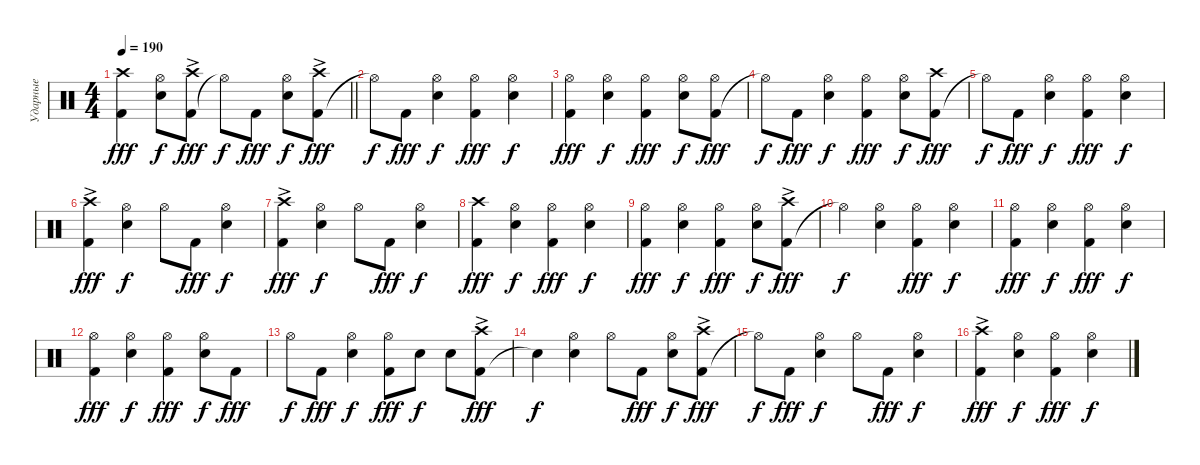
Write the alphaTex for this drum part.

\track ("Ударные" "Ударные") {instrument percussion}
\staff {score}
\articulation defaults
\ts (4 4)
\tempo 190
\clef neutral
\barLineRight lightlight
\ks c
("Kick (hit) 2" "Crash high (hit)").4{dy fff} ("Snare (hit) 2" "Hi-Hat (open)").8{dy f} ("Kick (hit) 2" "Crash high (hit)"{ac}).8{dy fff} "Hi-Hat (open)"{t}.8{dy f} "Kick (hit) 2".8{dy fff} ("Snare (hit) 2" "Hi-Hat (open)").8{dy f} ("Kick (hit) 2" "Crash high (hit)"{ac}).8{dy fff} |
"Hi-Hat (open)"{t}.8{dy f} "Kick (hit) 2".8{dy fff} ("Snare (hit) 2" "Hi-Hat (open)").4{dy f} ("Kick (hit) 2" "Hi-Hat (open)").4{dy fff} ("Snare (hit) 2" "Hi-Hat (open)").4{dy f} |
("Kick (hit) 2" "Hi-Hat (open)").4{dy fff} ("Snare (hit) 2" "Hi-Hat (open)").4{dy f} ("Kick (hit) 2" "Hi-Hat (open)").4{dy fff} ("Snare (hit) 2" "Hi-Hat (open)").8{dy f} ("Kick (hit) 2" "Hi-Hat (open)").8{dy fff} |
"Hi-Hat (open)"{t}.8{dy f} "Kick (hit) 2".8{dy fff} ("Snare (hit) 2" "Hi-Hat (open)").4{dy f} ("Kick (hit) 2" "Hi-Hat (open)").4{dy fff} ("Snare (hit) 2" "Hi-Hat (open)").8{dy f} ("Kick (hit) 2" "Crash high (hit)").8{dy fff} |
"Hi-Hat (open)"{t}.8{dy f} "Kick (hit) 2".8{dy fff} ("Snare (hit) 2" "Hi-Hat (open)").4{dy f} ("Kick (hit) 2" "Hi-Hat (open)").4{dy fff} ("Snare (hit) 2" "Hi-Hat (open)").4{dy f} |
("Kick (hit) 2" "Crash high (hit)"{ac}).4{dy fff} ("Snare (hit) 2" "Hi-Hat (open)").4{dy f} "Hi-Hat (open)".8 "Kick (hit) 2".8{dy fff} ("Snare (hit) 2" "Hi-Hat (open)").4{dy f} |
("Kick (hit) 2" "Crash high (hit)"{ac}).4{dy fff} ("Snare (hit) 2" "Hi-Hat (open)").4{dy f} "Hi-Hat (open)".8 "Kick (hit) 2".8{dy fff} ("Snare (hit) 2" "Hi-Hat (open)").4{dy f} |
("Kick (hit) 2" "Crash high (hit)").4{dy fff} ("Snare (hit) 2" "Hi-Hat (open)").4{dy f} ("Kick (hit) 2" "Hi-Hat (open)").4{dy fff} ("Snare (hit) 2" "Hi-Hat (open)").4{dy f} |
("Kick (hit) 2" "Hi-Hat (open)").4{dy fff} ("Snare (hit) 2" "Hi-Hat (open)").4{dy f} ("Kick (hit) 2" "Hi-Hat (open)").4{dy fff} ("Snare (hit) 2" "Hi-Hat (open)").8{dy f} ("Kick (hit) 2" "Crash high (hit)"{ac}).8{dy fff} |
"Hi-Hat (open)"{t}.4{dy f} ("Snare (hit) 2" "Hi-Hat (open)").4 ("Kick (hit) 2" "Hi-Hat (open)").4{dy fff} ("Snare (hit) 2" "Hi-Hat (open)").4{dy f} |
("Kick (hit) 2" "Hi-Hat (open)").4{dy fff} ("Snare (hit) 2" "Hi-Hat (open)").4{dy f} ("Kick (hit) 2" "Hi-Hat (open)").4{dy fff} ("Snare (hit) 2" "Hi-Hat (open)").4{dy f} |
("Kick (hit) 2" "Hi-Hat (open)").4{dy fff} ("Snare (hit) 2" "Hi-Hat (open)").4{dy f} ("Kick (hit) 2" "Hi-Hat (open)").4{dy fff} ("Snare (hit) 2" "Hi-Hat (open)").8{dy f} "Kick (hit) 2".8{dy fff} |
"Hi-Hat (open)".8{dy f} "Kick (hit) 2".8{dy fff} ("Snare (hit) 2" "Hi-Hat (open)").4{dy f} ("Kick (hit) 2" "Hi-Hat (open)").8{dy fff} "Snare (hit) 2".8{dy f} "Snare (hit) 2".8 ("Kick (hit) 2" "Crash high (hit)"{ac}).8{dy fff} |
"Snare (hit)"{t}.4{dy f} ("Snare (hit) 2" "Hi-Hat (open)").4 "Hi-Hat (open)".8 "Kick (hit) 2".8{dy fff} ("Snare (hit) 2" "Hi-Hat (open)").8{dy f} ("Kick (hit) 2" "Crash high (hit)"{ac}).8{dy fff} |
"Hi-Hat (open)"{t}.8{dy f} "Kick (hit) 2".8{dy fff} ("Snare (hit) 2" "Hi-Hat (open)").4{dy f} "Hi-Hat (open)".8 "Kick (hit) 2".8{dy fff} ("Snare (hit) 2" "Hi-Hat (open)").4{dy f} |
("Kick (hit) 2" "Crash high (hit)"{ac}).4{dy fff} ("Snare (hit) 2" "Hi-Hat (open)").4{dy f} ("Kick (hit) 2" "Hi-Hat (open)").4{dy fff} ("Snare (hit) 2" "Hi-Hat (open)").4{dy f}
